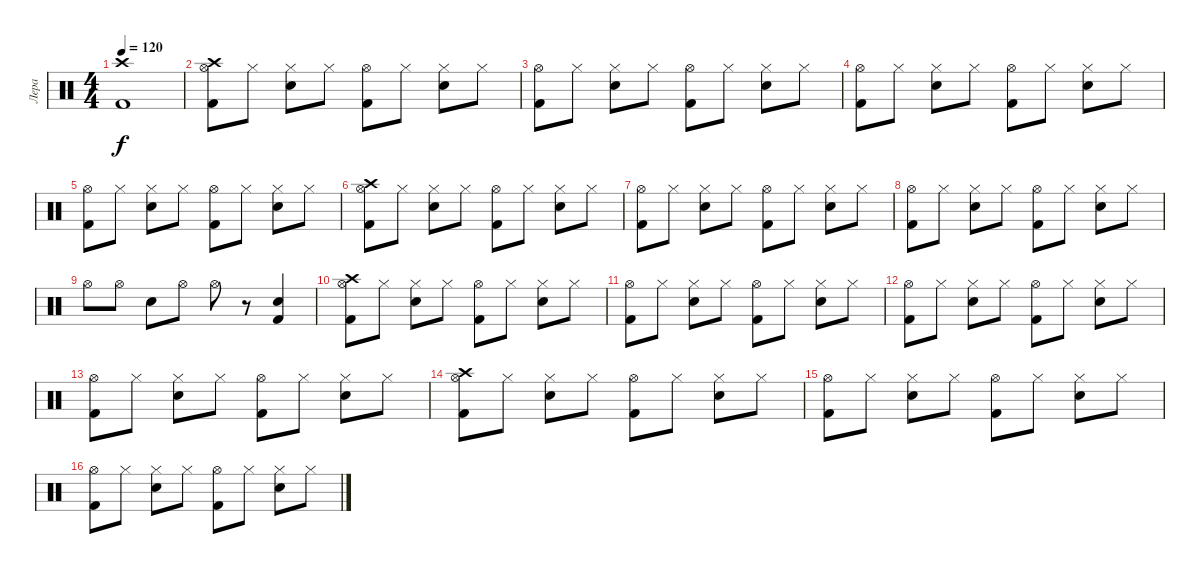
\track ("Лера" "Лера") {instrument percussion}
\staff {score}
\articulation defaults
\ts (4 4)
\tempo 120
\clef neutral
\ks c
("Crash high (hit)" "Kick (hit) 2").1{dy f} |
("Hi-Hat (open)" "Kick (hit) 2" "Crash high (hit)").8 "Hi-Hat (closed)".8 ("Hi-Hat (closed)" "Electric Snare (hit)").8 "Hi-Hat (closed)".8 ("Hi-Hat (open)" "Kick (hit) 2").8 "Hi-Hat (closed)".8 ("Hi-Hat (closed)" "Electric Snare (hit)").8 "Hi-Hat (closed)".8 |
("Hi-Hat (open)" "Kick (hit) 2").8 "Hi-Hat (closed)".8 ("Hi-Hat (closed)" "Electric Snare (hit)").8 "Hi-Hat (closed)".8 ("Hi-Hat (open)" "Kick (hit) 2").8 "Hi-Hat (closed)".8 ("Hi-Hat (closed)" "Electric Snare (hit)").8 "Hi-Hat (closed)".8 |
("Hi-Hat (open)" "Kick (hit) 2").8 "Hi-Hat (closed)".8 ("Hi-Hat (closed)" "Electric Snare (hit)").8 "Hi-Hat (closed)".8 ("Hi-Hat (open)" "Kick (hit) 2").8 "Hi-Hat (closed)".8 ("Hi-Hat (closed)" "Electric Snare (hit)").8 "Hi-Hat (closed)".8 |
("Hi-Hat (open)" "Kick (hit) 2").8 "Hi-Hat (closed)".8 ("Hi-Hat (closed)" "Electric Snare (hit)").8 "Hi-Hat (closed)".8 ("Hi-Hat (open)" "Kick (hit) 2").8 "Hi-Hat (closed)".8 ("Hi-Hat (closed)" "Electric Snare (hit)").8 "Hi-Hat (closed)".8 |
("Hi-Hat (open)" "Kick (hit) 2" "Crash high (hit)").8 "Hi-Hat (closed)".8 ("Hi-Hat (closed)" "Electric Snare (hit)").8 "Hi-Hat (closed)".8 ("Hi-Hat (open)" "Kick (hit) 2").8 "Hi-Hat (closed)".8 ("Hi-Hat (closed)" "Electric Snare (hit)").8 "Hi-Hat (closed)".8 |
("Hi-Hat (open)" "Kick (hit) 2").8 "Hi-Hat (closed)".8 ("Hi-Hat (closed)" "Electric Snare (hit)").8 "Hi-Hat (closed)".8 ("Hi-Hat (open)" "Kick (hit) 2").8 "Hi-Hat (closed)".8 ("Hi-Hat (closed)" "Electric Snare (hit)").8 "Hi-Hat (closed)".8 |
("Hi-Hat (open)" "Kick (hit) 2").8 "Hi-Hat (closed)".8 ("Hi-Hat (closed)" "Electric Snare (hit)").8 "Hi-Hat (closed)".8 ("Hi-Hat (open)" "Kick (hit) 2").8 "Hi-Hat (closed)".8 ("Hi-Hat (closed)" "Electric Snare (hit)").8 "Hi-Hat (closed)".8 |
"Hi-Hat (open)".8 "Hi-Hat (open)".8 "Electric Snare (hit)".8 "Hi-Hat (open)".8 "Hi-Hat (open)".8 r.8 ("Electric Snare (hit)" "Kick (hit) 2").4 |
("Hi-Hat (open)" "Kick (hit) 2" "Crash high (hit)").8 "Hi-Hat (closed)".8 ("Hi-Hat (closed)" "Electric Snare (hit)").8 "Hi-Hat (closed)".8 ("Hi-Hat (open)" "Kick (hit) 2").8 "Hi-Hat (closed)".8 ("Hi-Hat (closed)" "Electric Snare (hit)").8 "Hi-Hat (closed)".8 |
("Hi-Hat (open)" "Kick (hit) 2").8 "Hi-Hat (closed)".8 ("Hi-Hat (closed)" "Electric Snare (hit)").8 "Hi-Hat (closed)".8 ("Hi-Hat (open)" "Kick (hit) 2").8 "Hi-Hat (closed)".8 ("Hi-Hat (closed)" "Electric Snare (hit)").8 "Hi-Hat (closed)".8 |
("Hi-Hat (open)" "Kick (hit) 2").8 "Hi-Hat (closed)".8 ("Hi-Hat (closed)" "Electric Snare (hit)").8 "Hi-Hat (closed)".8 ("Hi-Hat (open)" "Kick (hit) 2").8 "Hi-Hat (closed)".8 ("Hi-Hat (closed)" "Electric Snare (hit)").8 "Hi-Hat (closed)".8 |
("Hi-Hat (open)" "Kick (hit) 2").8 "Hi-Hat (closed)".8 ("Hi-Hat (closed)" "Electric Snare (hit)").8 "Hi-Hat (closed)".8 ("Hi-Hat (open)" "Kick (hit) 2").8 "Hi-Hat (closed)".8 ("Hi-Hat (closed)" "Electric Snare (hit)").8 "Hi-Hat (closed)".8 |
("Hi-Hat (open)" "Kick (hit) 2" "Crash high (hit)").8 "Hi-Hat (closed)".8 ("Hi-Hat (closed)" "Electric Snare (hit)").8 "Hi-Hat (closed)".8 ("Hi-Hat (open)" "Kick (hit) 2").8 "Hi-Hat (closed)".8 ("Hi-Hat (closed)" "Electric Snare (hit)").8 "Hi-Hat (closed)".8 |
("Hi-Hat (open)" "Kick (hit) 2").8 "Hi-Hat (closed)".8 ("Hi-Hat (closed)" "Electric Snare (hit)").8 "Hi-Hat (closed)".8 ("Hi-Hat (open)" "Kick (hit) 2").8 "Hi-Hat (closed)".8 ("Hi-Hat (closed)" "Electric Snare (hit)").8 "Hi-Hat (closed)".8 |
("Hi-Hat (open)" "Kick (hit) 2").8 "Hi-Hat (closed)".8 ("Hi-Hat (closed)" "Electric Snare (hit)").8 "Hi-Hat (closed)".8 ("Hi-Hat (open)" "Kick (hit) 2").8 "Hi-Hat (closed)".8 ("Hi-Hat (closed)" "Electric Snare (hit)").8 "Hi-Hat (closed)".8
